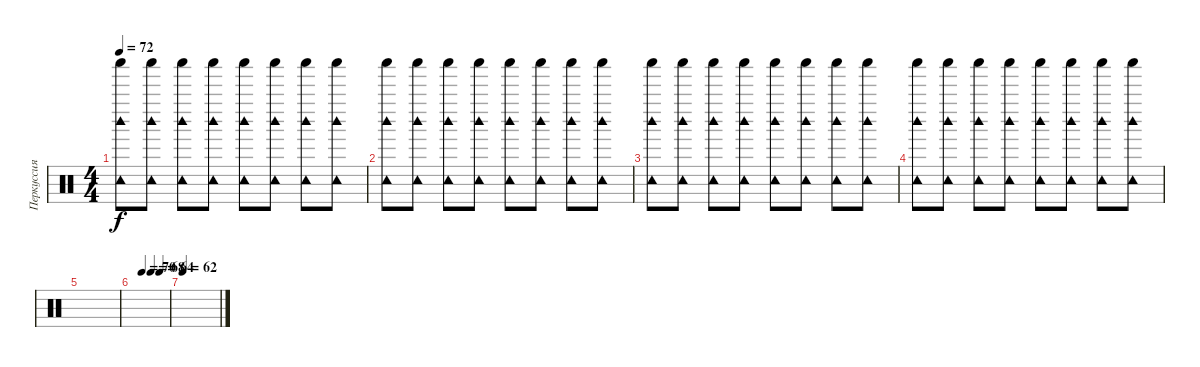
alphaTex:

\track ("Перкуссия" "Перкуссия") {instrument percussion}
\staff {score}
\articulation defaults
\ts (4 4)
\tempo 72
\clef neutral
\ks c
("Shaker (hit)" "Woodblock high (hit)" "Tambourine (hit)").8{dy f} ("Shaker (hit)" "Woodblock high (hit)" "Tambourine (hit)").8 ("Shaker (hit)" "Woodblock high (hit)" "Tambourine (hit)").8 ("Shaker (hit)" "Woodblock high (hit)" "Tambourine (hit)").8 ("Shaker (hit)" "Woodblock high (hit)" "Tambourine (hit)").8 ("Shaker (hit)" "Woodblock high (hit)" "Tambourine (hit)").8 ("Shaker (hit)" "Woodblock high (hit)" "Tambourine (hit)").8 ("Shaker (hit)" "Woodblock high (hit)" "Tambourine (hit)").8 |
("Shaker (hit)" "Woodblock high (hit)" "Tambourine (hit)").8 ("Shaker (hit)" "Woodblock high (hit)" "Tambourine (hit)").8 ("Shaker (hit)" "Woodblock high (hit)" "Tambourine (hit)").8 ("Shaker (hit)" "Woodblock high (hit)" "Tambourine (hit)").8 ("Shaker (hit)" "Woodblock high (hit)" "Tambourine (hit)").8 ("Shaker (hit)" "Woodblock high (hit)" "Tambourine (hit)").8 ("Shaker (hit)" "Woodblock high (hit)" "Tambourine (hit)").8 ("Shaker (hit)" "Woodblock high (hit)" "Tambourine (hit)").8 |
("Shaker (hit)" "Woodblock high (hit)" "Tambourine (hit)").8 ("Shaker (hit)" "Woodblock high (hit)" "Tambourine (hit)").8 ("Shaker (hit)" "Woodblock high (hit)" "Tambourine (hit)").8 ("Shaker (hit)" "Woodblock high (hit)" "Tambourine (hit)").8 ("Shaker (hit)" "Woodblock high (hit)" "Tambourine (hit)").8 ("Shaker (hit)" "Woodblock high (hit)" "Tambourine (hit)").8 ("Shaker (hit)" "Woodblock high (hit)" "Tambourine (hit)").8 ("Shaker (hit)" "Woodblock high (hit)" "Tambourine (hit)").8 |
("Shaker (hit)" "Woodblock high (hit)" "Tambourine (hit)").8 ("Shaker (hit)" "Woodblock high (hit)" "Tambourine (hit)").8 ("Shaker (hit)" "Woodblock high (hit)" "Tambourine (hit)").8 ("Shaker (hit)" "Woodblock high (hit)" "Tambourine (hit)").8 ("Shaker (hit)" "Woodblock high (hit)" "Tambourine (hit)").8 ("Shaker (hit)" "Woodblock high (hit)" "Tambourine (hit)").8 ("Shaker (hit)" "Woodblock high (hit)" "Tambourine (hit)").8 ("Shaker (hit)" "Woodblock high (hit)" "Tambourine (hit)").8 |
|
\tempo (70 0.25)
\tempo (68 0.5)
\tempo (64 0.75)
|
\tempo 62
